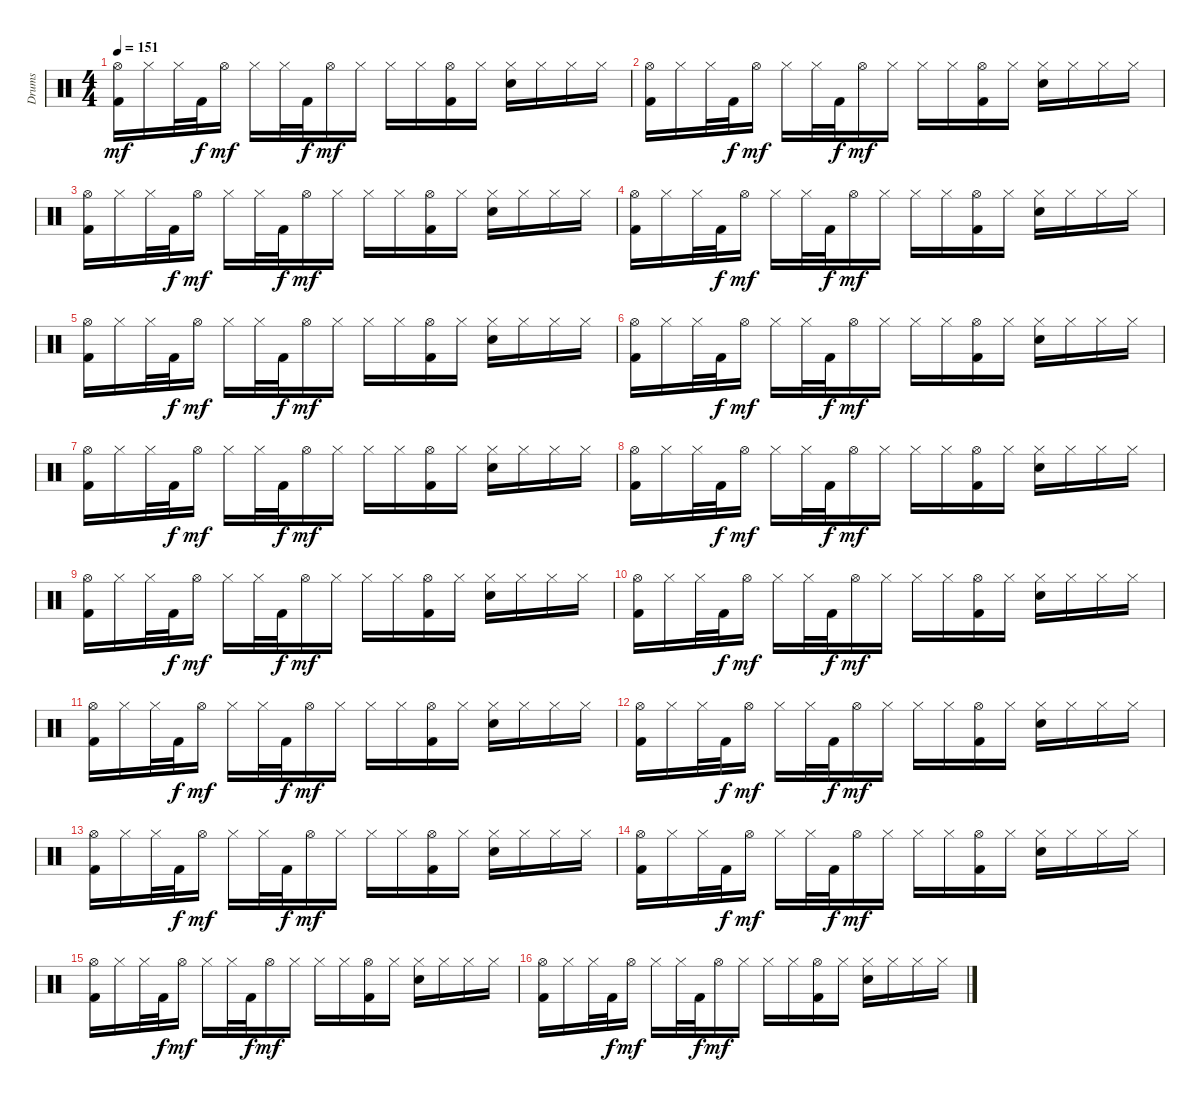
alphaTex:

\track ("Drums" "Drums") {instrument percussion}
\staff {score}
\articulation defaults
\ts (4 4)
\tempo 151
\clef neutral
\ks c
("Hi-Hat (open)" "Kick (hit) 2").16{dy mf} "Hi-Hat (closed)".16 "Hi-Hat (closed)".32 "Kick (hit) 2".32{dy f} "Hi-Hat (open)".16{dy mf} "Hi-Hat (closed)".16 "Hi-Hat (closed)".32 "Kick (hit) 2".32{dy f} "Hi-Hat (open)".16{dy mf} "Hi-Hat (closed)".16 "Hi-Hat (closed)".16 "Hi-Hat (closed)".16 ("Hi-Hat (open)" "Kick (hit) 2").16 "Hi-Hat (closed)".16 ("Hi-Hat (closed)" "Snare (hit) 2").16 "Hi-Hat (closed)".16 "Hi-Hat (closed)".16 "Hi-Hat (closed)".16 |
("Hi-Hat (open)" "Kick (hit) 2").16 "Hi-Hat (closed)".16 "Hi-Hat (closed)".32 "Kick (hit) 2".32{dy f} "Hi-Hat (open)".16{dy mf} "Hi-Hat (closed)".16 "Hi-Hat (closed)".32 "Kick (hit) 2".32{dy f} "Hi-Hat (open)".16{dy mf} "Hi-Hat (closed)".16 "Hi-Hat (closed)".16 "Hi-Hat (closed)".16 ("Hi-Hat (open)" "Kick (hit) 2").16 "Hi-Hat (closed)".16 ("Hi-Hat (closed)" "Snare (hit) 2").16 "Hi-Hat (closed)".16 "Hi-Hat (closed)".16 "Hi-Hat (closed)".16 |
("Hi-Hat (open)" "Kick (hit) 2").16 "Hi-Hat (closed)".16 "Hi-Hat (closed)".32 "Kick (hit) 2".32{dy f} "Hi-Hat (open)".16{dy mf} "Hi-Hat (closed)".16 "Hi-Hat (closed)".32 "Kick (hit) 2".32{dy f} "Hi-Hat (open)".16{dy mf} "Hi-Hat (closed)".16 "Hi-Hat (closed)".16 "Hi-Hat (closed)".16 ("Hi-Hat (open)" "Kick (hit) 2").16 "Hi-Hat (closed)".16 ("Hi-Hat (closed)" "Snare (hit) 2").16 "Hi-Hat (closed)".16 "Hi-Hat (closed)".16 "Hi-Hat (closed)".16 |
("Hi-Hat (open)" "Kick (hit) 2").16 "Hi-Hat (closed)".16 "Hi-Hat (closed)".32 "Kick (hit) 2".32{dy f} "Hi-Hat (open)".16{dy mf} "Hi-Hat (closed)".16 "Hi-Hat (closed)".32 "Kick (hit) 2".32{dy f} "Hi-Hat (open)".16{dy mf} "Hi-Hat (closed)".16 "Hi-Hat (closed)".16 "Hi-Hat (closed)".16 ("Hi-Hat (open)" "Kick (hit) 2").16 "Hi-Hat (closed)".16 ("Hi-Hat (closed)" "Snare (hit) 2").16 "Hi-Hat (closed)".16 "Hi-Hat (closed)".16 "Hi-Hat (closed)".16 |
("Hi-Hat (open)" "Kick (hit) 2").16 "Hi-Hat (closed)".16 "Hi-Hat (closed)".32 "Kick (hit) 2".32{dy f} "Hi-Hat (open)".16{dy mf} "Hi-Hat (closed)".16 "Hi-Hat (closed)".32 "Kick (hit) 2".32{dy f} "Hi-Hat (open)".16{dy mf} "Hi-Hat (closed)".16 "Hi-Hat (closed)".16 "Hi-Hat (closed)".16 ("Hi-Hat (open)" "Kick (hit) 2").16 "Hi-Hat (closed)".16 ("Hi-Hat (closed)" "Snare (hit) 2").16 "Hi-Hat (closed)".16 "Hi-Hat (closed)".16 "Hi-Hat (closed)".16 |
("Hi-Hat (open)" "Kick (hit) 2").16 "Hi-Hat (closed)".16 "Hi-Hat (closed)".32 "Kick (hit) 2".32{dy f} "Hi-Hat (open)".16{dy mf} "Hi-Hat (closed)".16 "Hi-Hat (closed)".32 "Kick (hit) 2".32{dy f} "Hi-Hat (open)".16{dy mf} "Hi-Hat (closed)".16 "Hi-Hat (closed)".16 "Hi-Hat (closed)".16 ("Hi-Hat (open)" "Kick (hit) 2").16 "Hi-Hat (closed)".16 ("Hi-Hat (closed)" "Snare (hit) 2").16 "Hi-Hat (closed)".16 "Hi-Hat (closed)".16 "Hi-Hat (closed)".16 |
("Hi-Hat (open)" "Kick (hit) 2").16 "Hi-Hat (closed)".16 "Hi-Hat (closed)".32 "Kick (hit) 2".32{dy f} "Hi-Hat (open)".16{dy mf} "Hi-Hat (closed)".16 "Hi-Hat (closed)".32 "Kick (hit) 2".32{dy f} "Hi-Hat (open)".16{dy mf} "Hi-Hat (closed)".16 "Hi-Hat (closed)".16 "Hi-Hat (closed)".16 ("Hi-Hat (open)" "Kick (hit) 2").16 "Hi-Hat (closed)".16 ("Hi-Hat (closed)" "Snare (hit) 2").16 "Hi-Hat (closed)".16 "Hi-Hat (closed)".16 "Hi-Hat (closed)".16 |
("Hi-Hat (open)" "Kick (hit) 2").16 "Hi-Hat (closed)".16 "Hi-Hat (closed)".32 "Kick (hit) 2".32{dy f} "Hi-Hat (open)".16{dy mf} "Hi-Hat (closed)".16 "Hi-Hat (closed)".32 "Kick (hit) 2".32{dy f} "Hi-Hat (open)".16{dy mf} "Hi-Hat (closed)".16 "Hi-Hat (closed)".16 "Hi-Hat (closed)".16 ("Hi-Hat (open)" "Kick (hit) 2").16 "Hi-Hat (closed)".16 ("Hi-Hat (closed)" "Snare (hit) 2").16 "Hi-Hat (closed)".16 "Hi-Hat (closed)".16 "Hi-Hat (closed)".16 |
("Hi-Hat (open)" "Kick (hit) 2").16 "Hi-Hat (closed)".16 "Hi-Hat (closed)".32 "Kick (hit) 2".32{dy f} "Hi-Hat (open)".16{dy mf} "Hi-Hat (closed)".16 "Hi-Hat (closed)".32 "Kick (hit) 2".32{dy f} "Hi-Hat (open)".16{dy mf} "Hi-Hat (closed)".16 "Hi-Hat (closed)".16 "Hi-Hat (closed)".16 ("Hi-Hat (open)" "Kick (hit) 2").16 "Hi-Hat (closed)".16 ("Hi-Hat (closed)" "Snare (hit) 2").16 "Hi-Hat (closed)".16 "Hi-Hat (closed)".16 "Hi-Hat (closed)".16 |
("Hi-Hat (open)" "Kick (hit) 2").16 "Hi-Hat (closed)".16 "Hi-Hat (closed)".32 "Kick (hit) 2".32{dy f} "Hi-Hat (open)".16{dy mf} "Hi-Hat (closed)".16 "Hi-Hat (closed)".32 "Kick (hit) 2".32{dy f} "Hi-Hat (open)".16{dy mf} "Hi-Hat (closed)".16 "Hi-Hat (closed)".16 "Hi-Hat (closed)".16 ("Hi-Hat (open)" "Kick (hit) 2").16 "Hi-Hat (closed)".16 ("Hi-Hat (closed)" "Snare (hit) 2").16 "Hi-Hat (closed)".16 "Hi-Hat (closed)".16 "Hi-Hat (closed)".16 |
("Hi-Hat (open)" "Kick (hit) 2").16 "Hi-Hat (closed)".16 "Hi-Hat (closed)".32 "Kick (hit) 2".32{dy f} "Hi-Hat (open)".16{dy mf} "Hi-Hat (closed)".16 "Hi-Hat (closed)".32 "Kick (hit) 2".32{dy f} "Hi-Hat (open)".16{dy mf} "Hi-Hat (closed)".16 "Hi-Hat (closed)".16 "Hi-Hat (closed)".16 ("Hi-Hat (open)" "Kick (hit) 2").16 "Hi-Hat (closed)".16 ("Hi-Hat (closed)" "Snare (hit) 2").16 "Hi-Hat (closed)".16 "Hi-Hat (closed)".16 "Hi-Hat (closed)".16 |
("Hi-Hat (open)" "Kick (hit) 2").16 "Hi-Hat (closed)".16 "Hi-Hat (closed)".32 "Kick (hit) 2".32{dy f} "Hi-Hat (open)".16{dy mf} "Hi-Hat (closed)".16 "Hi-Hat (closed)".32 "Kick (hit) 2".32{dy f} "Hi-Hat (open)".16{dy mf} "Hi-Hat (closed)".16 "Hi-Hat (closed)".16 "Hi-Hat (closed)".16 ("Hi-Hat (open)" "Kick (hit) 2").16 "Hi-Hat (closed)".16 ("Hi-Hat (closed)" "Snare (hit) 2").16 "Hi-Hat (closed)".16 "Hi-Hat (closed)".16 "Hi-Hat (closed)".16 |
("Hi-Hat (open)" "Kick (hit) 2").16 "Hi-Hat (closed)".16 "Hi-Hat (closed)".32 "Kick (hit) 2".32{dy f} "Hi-Hat (open)".16{dy mf} "Hi-Hat (closed)".16 "Hi-Hat (closed)".32 "Kick (hit) 2".32{dy f} "Hi-Hat (open)".16{dy mf} "Hi-Hat (closed)".16 "Hi-Hat (closed)".16 "Hi-Hat (closed)".16 ("Hi-Hat (open)" "Kick (hit) 2").16 "Hi-Hat (closed)".16 ("Hi-Hat (closed)" "Snare (hit) 2").16 "Hi-Hat (closed)".16 "Hi-Hat (closed)".16 "Hi-Hat (closed)".16 |
("Hi-Hat (open)" "Kick (hit) 2").16 "Hi-Hat (closed)".16 "Hi-Hat (closed)".32 "Kick (hit) 2".32{dy f} "Hi-Hat (open)".16{dy mf} "Hi-Hat (closed)".16 "Hi-Hat (closed)".32 "Kick (hit) 2".32{dy f} "Hi-Hat (open)".16{dy mf} "Hi-Hat (closed)".16 "Hi-Hat (closed)".16 "Hi-Hat (closed)".16 ("Hi-Hat (open)" "Kick (hit) 2").16 "Hi-Hat (closed)".16 ("Hi-Hat (closed)" "Snare (hit) 2").16 "Hi-Hat (closed)".16 "Hi-Hat (closed)".16 "Hi-Hat (closed)".16 |
("Hi-Hat (open)" "Kick (hit) 2").16 "Hi-Hat (closed)".16 "Hi-Hat (closed)".32 "Kick (hit) 2".32{dy f} "Hi-Hat (open)".16{dy mf} "Hi-Hat (closed)".16 "Hi-Hat (closed)".32 "Kick (hit) 2".32{dy f} "Hi-Hat (open)".16{dy mf} "Hi-Hat (closed)".16 "Hi-Hat (closed)".16 "Hi-Hat (closed)".16 ("Hi-Hat (open)" "Kick (hit) 2").16 "Hi-Hat (closed)".16 ("Hi-Hat (closed)" "Snare (hit) 2").16 "Hi-Hat (closed)".16 "Hi-Hat (closed)".16 "Hi-Hat (closed)".16 |
("Hi-Hat (open)" "Kick (hit) 2").16 "Hi-Hat (closed)".16 "Hi-Hat (closed)".32 "Kick (hit) 2".32{dy f} "Hi-Hat (open)".16{dy mf} "Hi-Hat (closed)".16 "Hi-Hat (closed)".32 "Kick (hit) 2".32{dy f} "Hi-Hat (open)".16{dy mf} "Hi-Hat (closed)".16 "Hi-Hat (closed)".16 "Hi-Hat (closed)".16 ("Hi-Hat (open)" "Kick (hit) 2").16 "Hi-Hat (closed)".16 ("Hi-Hat (closed)" "Snare (hit) 2").16 "Hi-Hat (closed)".16 "Hi-Hat (closed)".16 "Hi-Hat (closed)".16
